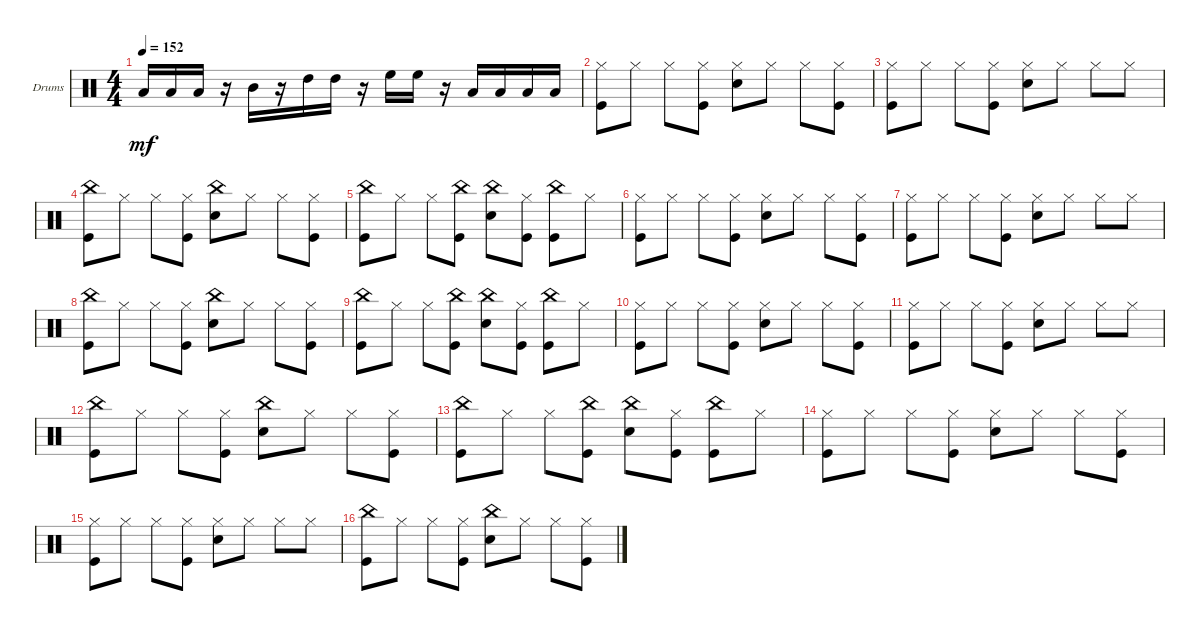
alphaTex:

\defaultSystemsLayout 4
\bracketExtendMode groupsimilarinstruments
\firstSystemTrackNameOrientation horizontal
\otherSystemsTrackNameOrientation horizontal
\track ("Drumkit" "Drums") {instrument percussion}
\staff {score}
\articulation defaults
\ts (4 4)
\tempo 152
\clef neutral
\ks c "Low Tom (hit)".16{dy mf} "Low Tom (hit)".16 "Low Tom (hit)".16
r.16 "Mid Tom (hit)".16 r.16 "High Tom (hit)".16 "High Tom (hit)".16 r.16 "High Floor Tom (hit)".16 "High Floor Tom (hit)".16 r.16 "Low Tom (hit)".16 "Low Tom (hit)".16 "Low Tom (hit)".16 "Low Tom (hit)".16 |
("Kick (hit)" "Hi-Hat (closed)").8 "Hi-Hat (closed)".8 "Hi-Hat (closed)".8 ("Hi-Hat (closed)" "Kick (hit)").8 ("Hi-Hat (closed)" "Snare (hit) 2").8 "Hi-Hat (closed)".8 "Hi-Hat (closed)".8 ("Hi-Hat (closed)" "Kick (hit)").8 |
("Kick (hit)" "Hi-Hat (closed)").8 "Hi-Hat (closed)".8 "Hi-Hat (closed)".8 ("Hi-Hat (closed)" "Kick (hit)").8 ("Hi-Hat (closed)" "Snare (hit) 2").8 "Hi-Hat (closed)".8 "Hi-Hat (closed)".8 "Hi-Hat (closed)".8 |
("Kick (hit)" "China (hit)").8 "Hi-Hat (closed)".8 "Hi-Hat (closed)".8 ("Hi-Hat (closed)" "Kick (hit)").8 ("Snare (hit) 2" "China (hit)").8 "Hi-Hat (closed)".8 "Hi-Hat (closed)".8 ("Hi-Hat (closed)" "Kick (hit)").8 |
("Kick (hit)" "China (hit)").8 "Hi-Hat (closed)".8 "Hi-Hat (closed)".8 ("China (hit)" "Kick (hit)").8 ("China (hit)" "Snare (hit) 2").8 ("Hi-Hat (closed)" "Kick (hit)").8 ("China (hit)" "Kick (hit)").8 "Hi-Hat (closed)".8 |
("Kick (hit)" "Hi-Hat (closed)").8 "Hi-Hat (closed)".8 "Hi-Hat (closed)".8 ("Hi-Hat (closed)" "Kick (hit)").8 ("Hi-Hat (closed)" "Snare (hit) 2").8 "Hi-Hat (closed)".8 "Hi-Hat (closed)".8 ("Hi-Hat (closed)" "Kick (hit)").8 |
("Kick (hit)" "Hi-Hat (closed)").8 "Hi-Hat (closed)".8 "Hi-Hat (closed)".8 ("Hi-Hat (closed)" "Kick (hit)").8 ("Hi-Hat (closed)" "Snare (hit) 2").8 "Hi-Hat (closed)".8 "Hi-Hat (closed)".8 "Hi-Hat (closed)".8 |
("Kick (hit)" "China (hit)").8 "Hi-Hat (closed)".8 "Hi-Hat (closed)".8 ("Hi-Hat (closed)" "Kick (hit)").8 ("Snare (hit) 2" "China (hit)").8 "Hi-Hat (closed)".8 "Hi-Hat (closed)".8 ("Hi-Hat (closed)" "Kick (hit)").8 |
("Kick (hit)" "China (hit)").8 "Hi-Hat (closed)".8 "Hi-Hat (closed)".8 ("China (hit)" "Kick (hit)").8 ("China (hit)" "Snare (hit) 2").8 ("Hi-Hat (closed)" "Kick (hit)").8 ("China (hit)" "Kick (hit)").8 "Hi-Hat (closed)".8 |
("Kick (hit)" "Hi-Hat (closed)").8 "Hi-Hat (closed)".8 "Hi-Hat (closed)".8 ("Hi-Hat (closed)" "Kick (hit)").8 ("Hi-Hat (closed)" "Snare (hit) 2").8 "Hi-Hat (closed)".8 "Hi-Hat (closed)".8 ("Hi-Hat (closed)" "Kick (hit)").8 |
("Kick (hit)" "Hi-Hat (closed)").8 "Hi-Hat (closed)".8 "Hi-Hat (closed)".8 ("Hi-Hat (closed)" "Kick (hit)").8 ("Hi-Hat (closed)" "Snare (hit) 2").8 "Hi-Hat (closed)".8 "Hi-Hat (closed)".8 "Hi-Hat (closed)".8 |
("Kick (hit)" "China (hit)").8 "Hi-Hat (closed)".8 "Hi-Hat (closed)".8 ("Hi-Hat (closed)" "Kick (hit)").8 ("Snare (hit) 2" "China (hit)").8 "Hi-Hat (closed)".8 "Hi-Hat (closed)".8 ("Hi-Hat (closed)" "Kick (hit)").8 |
("Kick (hit)" "China (hit)").8 "Hi-Hat (closed)".8 "Hi-Hat (closed)".8 ("China (hit)" "Kick (hit)").8 ("China (hit)" "Snare (hit) 2").8 ("Hi-Hat (closed)" "Kick (hit)").8 ("China (hit)" "Kick (hit)").8 "Hi-Hat (closed)".8 |
("Kick (hit)" "Hi-Hat (closed)").8 "Hi-Hat (closed)".8 "Hi-Hat (closed)".8 ("Hi-Hat (closed)" "Kick (hit)").8 ("Hi-Hat (closed)" "Snare (hit) 2").8 "Hi-Hat (closed)".8 "Hi-Hat (closed)".8 ("Hi-Hat (closed)" "Kick (hit)").8 |
("Kick (hit)" "Hi-Hat (closed)").8 "Hi-Hat (closed)".8 "Hi-Hat (closed)".8 ("Hi-Hat (closed)" "Kick (hit)").8 ("Hi-Hat (closed)" "Snare (hit) 2").8 "Hi-Hat (closed)".8 "Hi-Hat (closed)".8 "Hi-Hat (closed)".8 |
("Kick (hit)" "China (hit)").8 "Hi-Hat (closed)".8 "Hi-Hat (closed)".8 ("Hi-Hat (closed)" "Kick (hit)").8 ("Snare (hit) 2" "China (hit)").8 "Hi-Hat (closed)".8 "Hi-Hat (closed)".8 ("Hi-Hat (closed)" "Kick (hit)").8
